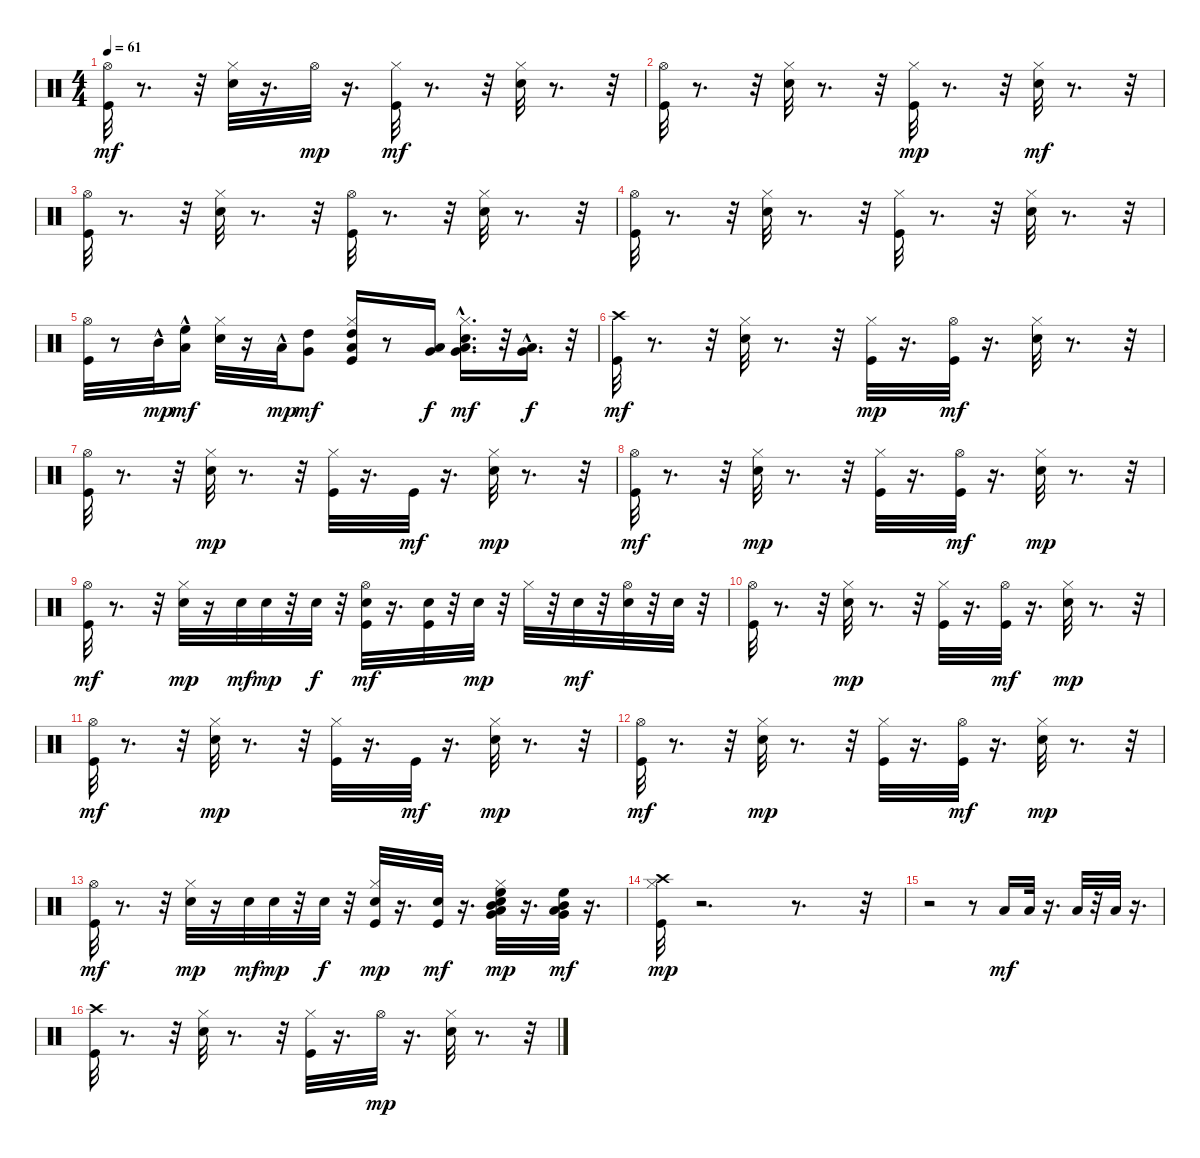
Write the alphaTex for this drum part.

\track "" {instrument percussion}
\staff {score}
\articulation defaults
\ts (4 4)
\tempo 61
\clef neutral
\ks c
("Hi-Hat (open)" "Kick (hit)").32{dy mf} r.8{d} r.32 ("Hi-Hat (closed)" "Electric Snare (hit)").32 r.16{d} "Hi-Hat (open)".32{dy mp} r.16{d} ("Hi-Hat (closed)" "Kick (hit)").32{dy mf} r.8{d} r.32 ("Hi-Hat (closed)" "Electric Snare (hit)").32 r.8{d} r.32 |
("Hi-Hat (open)" "Kick (hit)").32 r.8{d} r.32 ("Hi-Hat (closed)" "Electric Snare (hit)").32 r.8{d} r.32 ("Kick (hit)" "Hi-Hat (closed)").32{dy mp} r.8{d} r.32 ("Hi-Hat (closed)" "Electric Snare (hit)").32{dy mf} r.8{d} r.32 |
("Hi-Hat (open)" "Kick (hit)").32 r.8{d} r.32 ("Hi-Hat (closed)" "Electric Snare (hit)").32 r.8{d} r.32 ("Hi-Hat (open)" "Kick (hit)").32 r.8{d} r.32 ("Hi-Hat (closed)" "Electric Snare (hit)").32 r.8{d} r.32 |
("Hi-Hat (open)" "Kick (hit)").32 r.8{d} r.32 ("Hi-Hat (closed)" "Electric Snare (hit)").32 r.8{d} r.32 ("Hi-Hat (closed)" "Kick (hit)").32 r.8{d} r.32 ("Hi-Hat (closed)" "Electric Snare (hit)").32 r.8{d} r.32 |
("Hi-Hat (open)" "Kick (hit)").32 r.8 "Mid Tom (hit)"{hac}.32{dy mp} ("High Floor Tom (hit)"{hac} "Low Tom (hit)"{hac}).16{dy mf} ("Hi-Hat (closed)" "Electric Snare (hit)").32 r.16 "Low Tom (hit)"{hac}.32{dy mp} ("Very Low Tom (hit)" "High Tom (hit)").8{dy mf} ("High Tom (hit)" "Low Tom (hit)" "Hi-Hat (closed)" "Kick (hit)").16 r.8 ("Very Low Tom (hit)" "Low Tom (hit)").16{dy f} ("Very Low Tom (hit)"{hac} "Low Tom (hit)"{hac} "Hi-Hat (closed)" "Electric Snare (hit)").16{d dy mf} r.32 ("Low Floor Tom (hit)"{hac} "Very Low Tom (hit)").16{d dy f} r.32 |
("Kick (hit)" "Crash high (hit)").32{dy mf} r.8{d} r.32 ("Hi-Hat (closed)" "Electric Snare (hit)").32 r.8{d} r.32 ("Kick (hit)" "Hi-Hat (closed)").32{dy mp} r.16{d} ("Hi-Hat (open)" "Kick (hit)").32{dy mf} r.16{d} ("Hi-Hat (closed)" "Electric Snare (hit)").32 r.8{d} r.32 |
("Hi-Hat (open)" "Kick (hit)").32 r.8{d} r.32 ("Electric Snare (hit)" "Hi-Hat (closed)").32{dy mp} r.8{d} r.32 ("Kick (hit)" "Hi-Hat (closed)").32 r.16{d} "Kick (hit)".32{dy mf} r.16{d} ("Electric Snare (hit)" "Hi-Hat (closed)").32{dy mp} r.8{d} r.32 |
("Hi-Hat (open)" "Kick (hit)").32{dy mf} r.8{d} r.32 ("Electric Snare (hit)" "Hi-Hat (closed)").32{dy mp} r.8{d} r.32 ("Kick (hit)" "Hi-Hat (closed)").32 r.16{d} ("Hi-Hat (open)" "Kick (hit)").32{dy mf} r.16{d} ("Electric Snare (hit)" "Hi-Hat (closed)").32{dy mp} r.8{d} r.32 |
("Hi-Hat (open)" "Kick (hit)").32{dy mf} r.8{d} r.32 ("Electric Snare (hit)" "Hi-Hat (closed)").32{dy mp} r.16 "Electric Snare (hit)".32{dy mf} "Electric Snare (hit)".32{dy mp} r.32 "Electric Snare (hit)".32{dy f} r.32 ("Hi-Hat (open)" "Electric Snare (hit)" "Kick (hit)").32{dy mf} r.16{d} ("Electric Snare (hit)" "Kick (hit)").32 r.32 "Electric Snare (hit)".32{dy mp} r.32 "Hi-Hat (closed)".32 r.32 "Electric Snare (hit)".32{dy mf} r.32 ("Hi-Hat (open)" "Electric Snare (hit)").32 r.32 "Electric Snare (hit)".32 r.32 |
("Hi-Hat (open)" "Kick (hit)").32 r.8{d} r.32 ("Electric Snare (hit)" "Hi-Hat (closed)").32{dy mp} r.8{d} r.32 ("Kick (hit)" "Hi-Hat (closed)").32 r.16{d} ("Hi-Hat (open)" "Kick (hit)").32{dy mf} r.16{d} ("Electric Snare (hit)" "Hi-Hat (closed)").32{dy mp} r.8{d} r.32 |
("Hi-Hat (open)" "Kick (hit)").32{dy mf} r.8{d} r.32 ("Electric Snare (hit)" "Hi-Hat (closed)").32{dy mp} r.8{d} r.32 ("Kick (hit)" "Hi-Hat (closed)").32 r.16{d} "Kick (hit)".32{dy mf} r.16{d} ("Electric Snare (hit)" "Hi-Hat (closed)").32{dy mp} r.8{d} r.32 |
("Hi-Hat (open)" "Kick (hit)").32{dy mf} r.8{d} r.32 ("Electric Snare (hit)" "Hi-Hat (closed)").32{dy mp} r.8{d} r.32 ("Kick (hit)" "Hi-Hat (closed)").32 r.16{d} ("Hi-Hat (open)" "Kick (hit)").32{dy mf} r.16{d} ("Electric Snare (hit)" "Hi-Hat (closed)").32{dy mp} r.8{d} r.32 |
("Hi-Hat (open)" "Kick (hit)").32{dy mf} r.8{d} r.32 ("Electric Snare (hit)" "Hi-Hat (closed)").32{dy mp} r.16 "Electric Snare (hit)".32{dy mf} "Electric Snare (hit)".32{dy mp} r.32 "Electric Snare (hit)".32{dy f} r.32 ("Electric Snare (hit)" "Kick (hit)" "Hi-Hat (closed)").32{dy mp} r.16{d} ("Electric Snare (hit)" "Kick (hit)").32{dy mf} r.16{d} ("High Floor Tom (hit)" "Low Tom (hit)" "Electric Snare (hit)" "Very Low Tom (hit)" "Mid Tom (hit)" "Hi-Hat (closed)").32{dy mp} r.16{d} ("Low Floor Tom (hit)" "Very Low Tom (hit)" "High Floor Tom (hit)" "Mid Tom (hit)").32{dy mf} r.16{d} |
("Crash high (hit)" "Kick (hit)" "Hi-Hat (closed)").32{dy mp} r.2{d} r.8{d} r.32 |
r.2 r.8 "Low Tom (hit)".16{dy mf} "Low Tom (hit)".32 r.16{d} "Low Tom (hit)".32 r.32 "Low Tom (hit)".32 r.16{d} |
("Crash high (hit)" "Kick (hit)").32 r.8{d} r.32 ("Hi-Hat (closed)" "Electric Snare (hit)").32 r.8{d} r.32 ("Hi-Hat (closed)" "Kick (hit)").32 r.16{d} "Hi-Hat (open)".32{dy mp} r.16{d} ("Electric Snare (hit)" "Hi-Hat (closed)").32 r.8{d} r.32
